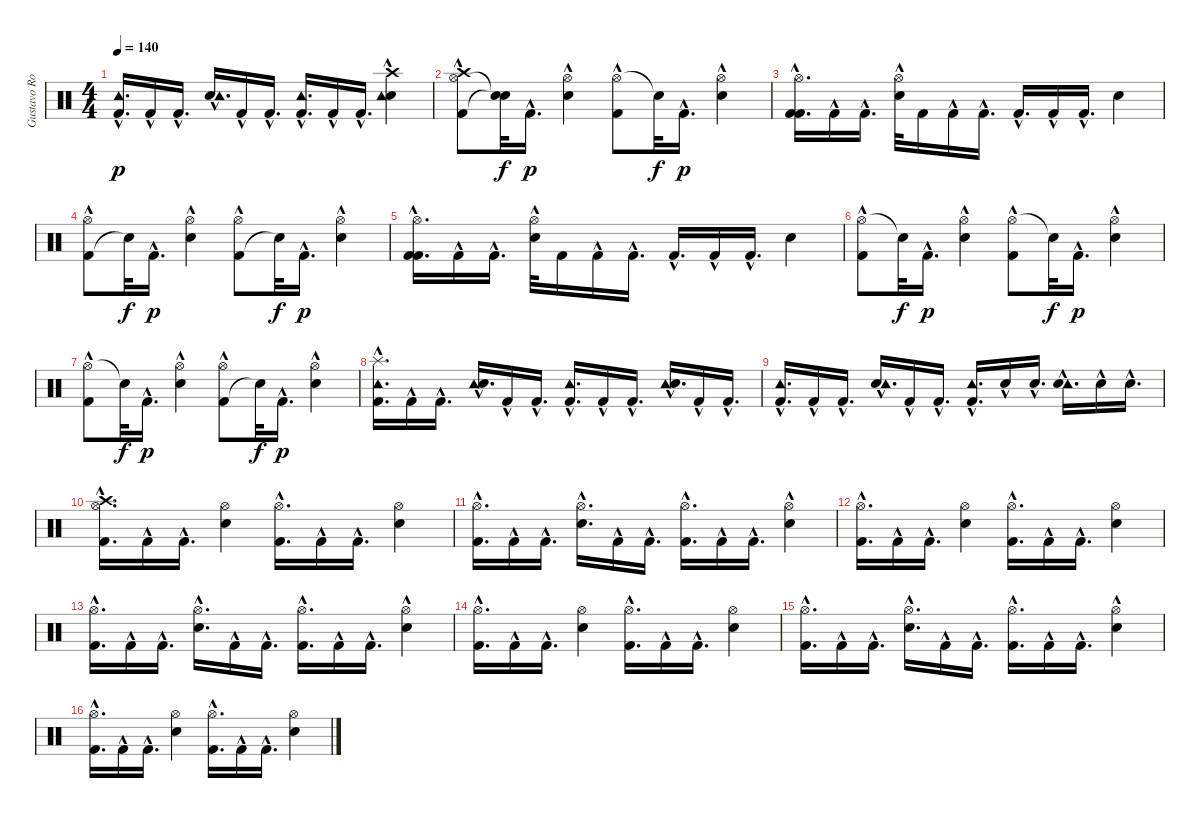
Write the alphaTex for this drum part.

\track ("Gustavo Rowek" "Gustavo Ro") {instrument percussion}
\staff {score}
\articulation defaults
\ts (4 4)
\tempo 140
\clef neutral
\ks c
("Kick (hit) 2"{hac} "Tambourine (hit)").16{d dy p} "Kick (hit) 2"{hac}.16 "Kick (hit) 2"{hac}.16{d} ("Snare (hit) 2"{hac} "Tambourine (hit)").16{d} "Kick (hit) 2"{hac}.16 "Kick (hit) 2"{hac}.16{d} ("Kick (hit) 2"{hac} "Tambourine (hit)").16{d} "Kick (hit) 2"{hac}.16 "Kick (hit) 2"{hac}.16{d} ("Snare (hit) 2"{hac} "Tambourine (hit)" "Crash high (hit)").4 |
("Hi-Hat (open)" "Kick (hit) 2"{hac} "Crash high (hit)").8 ("Snare (hit)"{t} "Snare (hit)"{t}).32{dy f} "Kick (hit) 2"{hac}.16{d dy p} ("Hi-Hat (open)" "Snare (hit) 2"{hac}).4 ("Hi-Hat (open)" "Kick (hit) 2"{hac}).8 "Snare (hit)"{t}.32{dy f} "Kick (hit) 2"{hac}.16{d dy p} ("Hi-Hat (open)" "Snare (hit) 2"{hac}).4 |
("Hi-Hat (open)" "Kick (hit) 2"{hac} "Kick (hit) 2"{hac}).16{d} "Kick (hit) 2"{hac}.16 "Kick (hit) 2"{hac}.16{d} ("Snare (hit) 2"{hac} "Hi-Hat (open)").32 "Kick (hit) 2".16 "Kick (hit) 2"{hac}.16 "Kick (hit) 2"{hac}.16{d} "Kick (hit) 2"{hac}.16{d} "Kick (hit) 2"{hac}.16 "Kick (hit) 2"{hac}.16{d} "Snare (hit) 2".4 |
("Kick (hit) 2"{hac} "Hi-Hat (open)").8 "Snare (hit)"{t}.32{dy f} "Kick (hit) 2"{hac}.16{d dy p} ("Snare (hit) 2"{hac} "Hi-Hat (open)").4 ("Kick (hit) 2"{hac} "Hi-Hat (open)").8 "Snare (hit)"{t}.32{dy f} "Kick (hit) 2"{hac}.16{d dy p} ("Snare (hit) 2"{hac} "Hi-Hat (open)").4 |
("Kick (hit) 2"{hac} "Hi-Hat (open)" "Kick (hit) 2"{hac}).16{d} "Kick (hit) 2"{hac}.16 "Kick (hit) 2"{hac}.16{d} ("Snare (hit) 2"{hac} "Hi-Hat (open)").32 "Kick (hit) 2".16 "Kick (hit) 2"{hac}.16 "Kick (hit) 2"{hac}.16{d} "Kick (hit) 2"{hac}.16{d} "Kick (hit) 2"{hac}.16 "Kick (hit) 2"{hac}.16{d} "Snare (hit) 2".4 |
("Hi-Hat (open)" "Kick (hit) 2"{hac}).8 "Snare (hit)"{t}.32{dy f} "Kick (hit) 2"{hac}.16{d dy p} ("Hi-Hat (open)" "Snare (hit) 2"{hac}).4 ("Hi-Hat (open)" "Kick (hit) 2"{hac}).8 "Snare (hit)"{t}.32{dy f} "Kick (hit) 2"{hac}.16{d dy p} ("Hi-Hat (open)" "Snare (hit) 2"{hac}).4 |
("Hi-Hat (open)" "Kick (hit) 2"{hac}).8 "Snare (hit)"{t}.32{dy f} "Kick (hit) 2"{hac}.16{d dy p} ("Hi-Hat (open)" "Snare (hit) 2"{hac}).4 ("Kick (hit) 2"{hac} "Hi-Hat (open)").8 "Snare (hit)"{t}.32{dy f} "Kick (hit) 2"{hac}.16{d dy p} ("Snare (hit) 2"{hac} "Hi-Hat (open)").4 |
("Splash (hit)" "Kick (hit) 2"{hac} "Tambourine (hit)").16{d} "Kick (hit) 2"{hac}.16 "Kick (hit) 2"{hac}.16{d} ("Tambourine (hit)" "Snare (hit) 2"{hac}).16{d} "Kick (hit) 2"{hac}.16 "Kick (hit) 2"{hac}.16{d} ("Tambourine (hit)" "Kick (hit) 2"{hac}).16{d} "Kick (hit) 2"{hac}.16 "Kick (hit) 2"{hac}.16{d} ("Tambourine (hit)" "Snare (hit) 2"{hac}).16{d} "Kick (hit) 2"{hac}.16 "Kick (hit) 2"{hac}.16{d} |
("Kick (hit) 2"{hac} "Tambourine (hit)").16{d} "Kick (hit) 2"{hac}.16 "Kick (hit) 2"{hac}.16{d} ("Snare (hit) 2"{hac} "Tambourine (hit)").16{d} "Kick (hit) 2"{hac}.16 "Kick (hit) 2"{hac}.16{d} ("Kick (hit) 2"{hac} "Tambourine (hit)").16{d} "Snare (hit) 2"{hac}.16 "Snare (hit) 2"{hac}.16{d} ("Tambourine (hit)" "Snare (hit) 2"{hac}).16{d} "Snare (hit) 2"{hac}.16 "Snare (hit) 2"{hac}.16{d} |
("Kick (hit) 2"{hac} "Hi-Hat (open)" "Crash high (hit)").16{d} "Kick (hit) 2"{hac}.16 "Kick (hit) 2"{hac}.16{d} ("Snare (hit) 2" "Hi-Hat (open)").4 ("Kick (hit) 2"{hac} "Hi-Hat (open)").16{d} "Kick (hit) 2"{hac}.16 "Kick (hit) 2"{hac}.16{d} ("Snare (hit) 2" "Hi-Hat (open)").4 |
("Kick (hit) 2"{hac} "Hi-Hat (open)").16{d} "Kick (hit) 2"{hac}.16 "Kick (hit) 2"{hac}.16{d} ("Hi-Hat (open)" "Snare (hit) 2"{hac}).16{d} "Kick (hit) 2"{hac}.16 "Kick (hit) 2"{hac}.16{d} ("Kick (hit) 2"{hac} "Hi-Hat (open)").16{d} "Kick (hit) 2"{hac}.16 "Kick (hit) 2"{hac}.16{d} ("Electric Snare (hit)"{hac} "Hi-Hat (open)").4 |
("Kick (hit) 2"{hac} "Hi-Hat (open)").16{d} "Kick (hit) 2"{hac}.16 "Kick (hit) 2"{hac}.16{d} ("Snare (hit) 2" "Hi-Hat (open)").4 ("Kick (hit) 2"{hac} "Hi-Hat (open)").16{d} "Kick (hit) 2"{hac}.16 "Kick (hit) 2"{hac}.16{d} ("Hi-Hat (open)" "Snare (hit) 2").4 |
("Hi-Hat (open)" "Kick (hit) 2"{hac}).16{d} "Kick (hit) 2"{hac}.16 "Kick (hit) 2"{hac}.16{d} ("Hi-Hat (open)" "Snare (hit) 2"{hac}).16{d} "Kick (hit) 2"{hac}.16 "Kick (hit) 2"{hac}.16{d} ("Kick (hit) 2"{hac} "Hi-Hat (open)").16{d} "Kick (hit) 2"{hac}.16 "Kick (hit) 2"{hac}.16{d} ("Hi-Hat (open)" "Electric Snare (hit)"{hac}).4 |
("Hi-Hat (open)" "Kick (hit) 2"{hac}).16{d} "Kick (hit) 2"{hac}.16 "Kick (hit) 2"{hac}.16{d} ("Snare (hit) 2" "Hi-Hat (open)").4 ("Hi-Hat (open)" "Kick (hit) 2"{hac}).16{d} "Kick (hit) 2"{hac}.16 "Kick (hit) 2"{hac}.16{d} ("Snare (hit) 2" "Hi-Hat (open)").4 |
("Hi-Hat (open)" "Kick (hit) 2"{hac}).16{d} "Kick (hit) 2"{hac}.16 "Kick (hit) 2"{hac}.16{d} ("Snare (hit) 2"{hac} "Hi-Hat (open)").16{d} "Kick (hit) 2"{hac}.16 "Kick (hit) 2"{hac}.16{d} ("Kick (hit) 2"{hac} "Hi-Hat (open)").16{d} "Kick (hit) 2"{hac}.16 "Kick (hit) 2"{hac}.16{d} ("Electric Snare (hit)"{hac} "Hi-Hat (open)").4 |
("Kick (hit) 2"{hac} "Hi-Hat (open)").16{d} "Kick (hit) 2"{hac}.16 "Kick (hit) 2"{hac}.16{d} ("Snare (hit) 2" "Hi-Hat (open)").4 ("Kick (hit) 2"{hac} "Hi-Hat (open)").16{d} "Kick (hit) 2"{hac}.16 "Kick (hit) 2"{hac}.16{d} ("Snare (hit) 2" "Hi-Hat (open)").4
